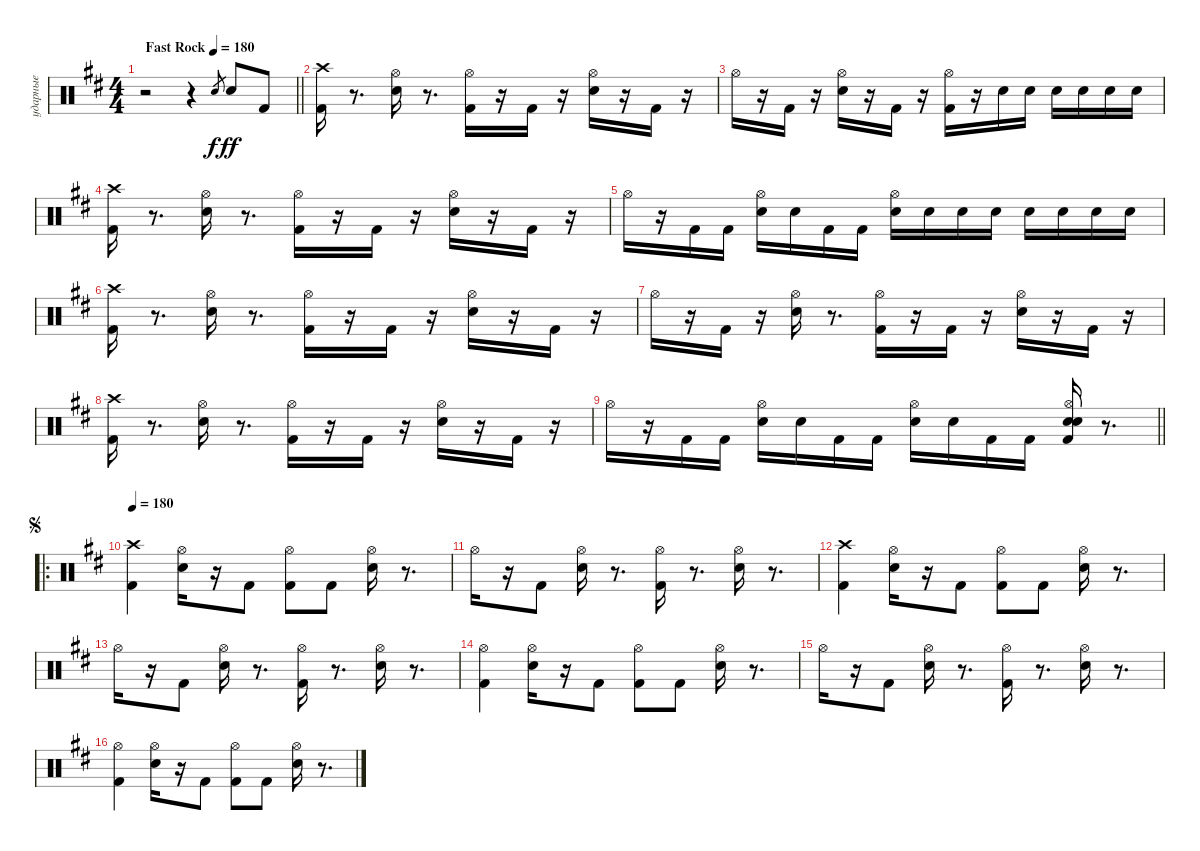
\track ("ударные" "ударные") {instrument percussion}
\staff {score}
\articulation defaults
\ts (4 4)
\tempo (180 "Fast Rock")
\clef neutral
\barLineRight lightlight
\ks bminor
r.2{dy f} r.4 "Snare (hit) 2".8{gr} "Snare (hit) 2".8{dy ff} "Kick (hit) 2".8 |
\section ("" "")
("Crash high (hit)" "Kick (hit) 2").16 r.8{d} ("Hi-Hat (open)" "Electric Snare (hit)").16 r.8{d} ("Hi-Hat (open)" "Kick (hit) 2").16 r.16 "Kick (hit) 2".16 r.16 ("Electric Snare (hit)" "Hi-Hat (open)").16 r.16 "Kick (hit) 2".16 r.16 |
"Hi-Hat (open)".16 r.16 "Kick (hit) 2".16 r.16 ("Hi-Hat (open)" "Electric Snare (hit)").16 r.16 "Kick (hit) 2".16 r.16 ("Kick (hit) 2" "Hi-Hat (open)").16 r.16 "Electric Snare (hit)".16 "Electric Snare (hit)".16 "Electric Snare (hit)".16 "Electric Snare (hit)".16 "Electric Snare (hit)".16 "Electric Snare (hit)".16 |
("Crash high (hit)" "Kick (hit) 2").16 r.8{d} ("Hi-Hat (open)" "Electric Snare (hit)").16 r.8{d} ("Hi-Hat (open)" "Kick (hit) 2").16 r.16 "Kick (hit) 2".16 r.16 ("Electric Snare (hit)" "Hi-Hat (open)").16 r.16 "Kick (hit) 2".16 r.16 |
"Hi-Hat (open)".16 r.16 "Kick (hit) 2".16 "Kick (hit) 2".16 ("Hi-Hat (open)" "Electric Snare (hit)").16 "Electric Snare (hit)".16 "Kick (hit) 2".16 "Kick (hit) 2".16 ("Hi-Hat (open)" "Electric Snare (hit)").16 "Electric Snare (hit)".16 "Electric Snare (hit)".16 "Electric Snare (hit)".16 "Electric Snare (hit)".16 "Electric Snare (hit)".16 "Electric Snare (hit)".16 "Electric Snare (hit)".16 |
("Crash high (hit)" "Kick (hit) 2").16 r.8{d} ("Hi-Hat (open)" "Electric Snare (hit)").16 r.8{d} ("Hi-Hat (open)" "Kick (hit) 2").16 r.16 "Kick (hit) 2".16 r.16 ("Electric Snare (hit)" "Hi-Hat (open)").16 r.16 "Kick (hit) 2".16 r.16 |
"Hi-Hat (open)".16 r.16 "Kick (hit) 2".16 r.16 ("Hi-Hat (open)" "Electric Snare (hit)").16 r.8{d} ("Kick (hit) 2" "Hi-Hat (open)").16 r.16 "Kick (hit) 2".16 r.16 ("Hi-Hat (open)" "Electric Snare (hit)").16 r.16 "Kick (hit) 2".16 r.16 |
("Crash high (hit)" "Kick (hit) 2").16 r.8{d} ("Hi-Hat (open)" "Electric Snare (hit)").16 r.8{d} ("Hi-Hat (open)" "Kick (hit) 2").16 r.16 "Kick (hit) 2".16 r.16 ("Electric Snare (hit)" "Hi-Hat (open)").16 r.16 "Kick (hit) 2".16 r.16 |
\barLineRight lightlight "Hi-Hat (open)".16
r.16 "Kick (hit) 2".16 "Kick (hit) 2".16 ("Hi-Hat (open)" "Electric Snare (hit)").16 "Electric Snare (hit)".16 "Kick (hit) 2".16 "Kick (hit) 2".16 ("Hi-Hat (open)" "Electric Snare (hit)").16 "Electric Snare (hit)".16 "Kick (hit) 2".16 "Kick (hit) 2".16 ("Hi-Hat (open)" "Electric Snare (hit)" "Kick (hit) 2" "Electric Snare (hit)").16 r.8{d} |
\ro
\section ("" "")
\jump segno
\tempo 180
("Crash high (hit)" "Kick (hit) 2").4 ("Hi-Hat (open)" "Electric Snare (hit)").16 r.16 "Kick (hit) 2".8 ("Hi-Hat (open)" "Kick (hit) 2").8 "Kick (hit) 2".8 ("Hi-Hat (open)" "Electric Snare (hit)").16 r.8{d} |
"Hi-Hat (open)".16 r.16 "Kick (hit) 2".8 ("Hi-Hat (open)" "Electric Snare (hit)").16 r.8{d} ("Hi-Hat (open)" "Kick (hit) 2").16 r.8{d} ("Hi-Hat (open)" "Electric Snare (hit)").16 r.8{d} |
("Crash high (hit)" "Kick (hit) 2").4 ("Hi-Hat (open)" "Electric Snare (hit)").16 r.16 "Kick (hit) 2".8 ("Hi-Hat (open)" "Kick (hit) 2").8 "Kick (hit) 2".8 ("Hi-Hat (open)" "Electric Snare (hit)").16 r.8{d} |
"Hi-Hat (open)".16 r.16 "Kick (hit) 2".8 ("Hi-Hat (open)" "Electric Snare (hit)").16 r.8{d} ("Hi-Hat (open)" "Kick (hit) 2").16 r.8{d} ("Hi-Hat (open)" "Electric Snare (hit)").16 r.8{d} |
("Kick (hit) 2" "Hi-Hat (open)").4 ("Hi-Hat (open)" "Electric Snare (hit)").16 r.16 "Kick (hit) 2".8 ("Hi-Hat (open)" "Kick (hit) 2").8 "Kick (hit) 2".8 ("Hi-Hat (open)" "Electric Snare (hit)").16 r.8{d} |
"Hi-Hat (open)".16 r.16 "Kick (hit) 2".8 ("Hi-Hat (open)" "Electric Snare (hit)").16 r.8{d} ("Hi-Hat (open)" "Kick (hit) 2").16 r.8{d} ("Hi-Hat (open)" "Electric Snare (hit)").16 r.8{d} |
("Kick (hit) 2" "Hi-Hat (open)").4 ("Hi-Hat (open)" "Electric Snare (hit)").16 r.16 "Kick (hit) 2".8 ("Hi-Hat (open)" "Kick (hit) 2").8 "Kick (hit) 2".8 ("Hi-Hat (open)" "Electric Snare (hit)").16 r.8{d}
